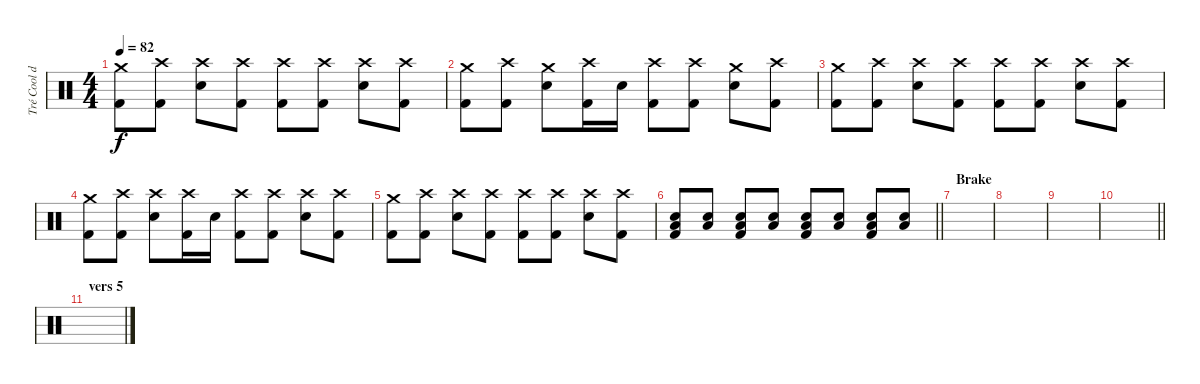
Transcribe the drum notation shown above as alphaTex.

\track ("Tré Cool drums" "Tré Cool d") {instrument percussion}
\staff {score}
\articulation defaults
\ts (4 4)
\tempo 82
\clef neutral
\ks c
("Crash medium (hit)" "Kick (hit) 2").8{dy f} ("Crash high (hit)" "Kick (hit) 2").8 ("Crash high (hit)" "Snare (hit) 2").8 ("Crash high (hit)" "Kick (hit) 2").8 ("Crash high (hit)" "Kick (hit) 2").8 ("Crash high (hit)" "Kick (hit) 2").8 ("Crash high (hit)" "Snare (hit) 2").8 ("Crash high (hit)" "Kick (hit) 2").8 |
("Crash medium (hit)" "Kick (hit) 2").8 ("Crash high (hit)" "Kick (hit) 2").8 ("Crash medium (hit)" "Snare (hit) 2").8 ("Crash high (hit)" "Kick (hit) 2").16 "Snare (hit) 2".16 ("Crash high (hit)" "Kick (hit) 2").8 ("Crash high (hit)" "Kick (hit) 2").8 ("Crash medium (hit)" "Snare (hit) 2").8 ("Crash high (hit)" "Kick (hit) 2").8 |
("Crash medium (hit)" "Kick (hit) 2").8 ("Crash high (hit)" "Kick (hit) 2").8 ("Crash high (hit)" "Snare (hit) 2").8 ("Crash high (hit)" "Kick (hit) 2").8 ("Crash high (hit)" "Kick (hit) 2").8 ("Crash high (hit)" "Kick (hit) 2").8 ("Crash high (hit)" "Snare (hit) 2").8 ("Crash high (hit)" "Kick (hit) 2").8 |
("Crash medium (hit)" "Kick (hit) 2").8 ("Crash high (hit)" "Kick (hit) 2").8 ("Crash high (hit)" "Snare (hit) 2").8 ("Crash high (hit)" "Kick (hit) 2").16 "Snare (hit) 2".16 ("Crash high (hit)" "Kick (hit) 2").8 ("Crash high (hit)" "Kick (hit) 2").8 ("Crash high (hit)" "Snare (hit) 2").8 ("Crash high (hit)" "Kick (hit) 2").8 |
("Crash medium (hit)" "Kick (hit) 2").8 ("Crash high (hit)" "Kick (hit) 2").8 ("Crash high (hit)" "Snare (hit) 2").8 ("Crash high (hit)" "Kick (hit) 2").8 ("Crash high (hit)" "Kick (hit) 2").8 ("Crash high (hit)" "Kick (hit) 2").8 ("Crash high (hit)" "Snare (hit) 2").8 ("Crash high (hit)" "Kick (hit) 2").8 |
\barLineRight lightlight
("Low Floor Tom (hit)" "Snare (hit) 2" "Kick (hit) 2").8 ("Low Floor Tom (hit)" "Snare (hit) 2").8 ("Low Floor Tom (hit)" "Snare (hit) 2" "Kick (hit) 2").8 ("Low Floor Tom (hit)" "Snare (hit) 2").8 ("Low Floor Tom (hit)" "Snare (hit) 2" "Kick (hit) 2").8 ("Low Floor Tom (hit)" "Snare (hit) 2").8 ("Low Floor Tom (hit)" "Snare (hit) 2" "Kick (hit) 2").8 ("Low Floor Tom (hit)" "Snare (hit) 2").8 |
\section ("" "Brake")
|
|
|
\barLineRight lightlight
|
\section ("" "vers 5")
